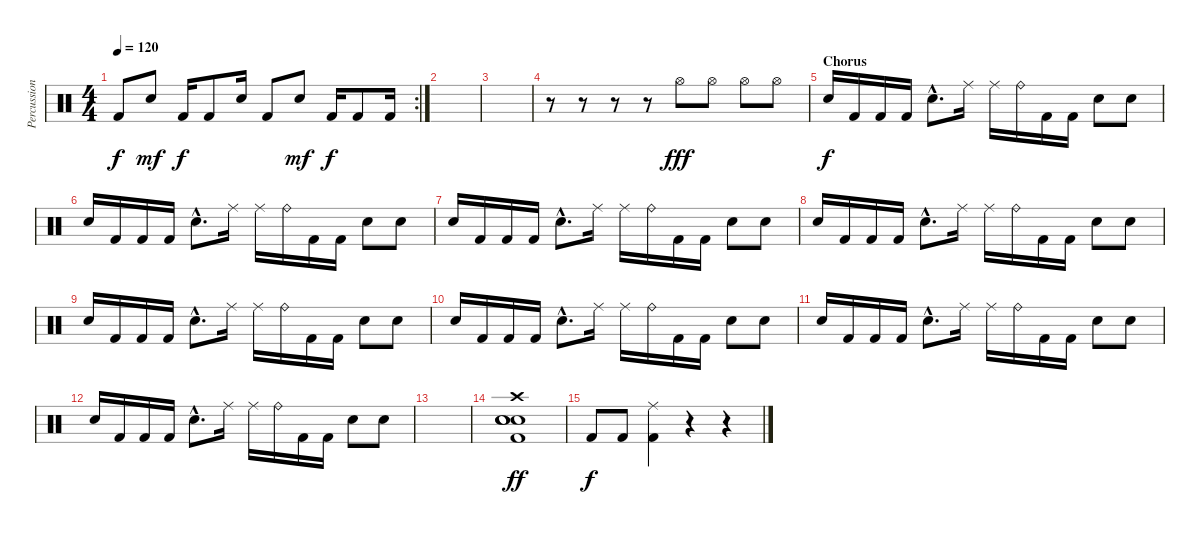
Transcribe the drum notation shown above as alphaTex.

\track ("Percussions" "Percussion") {instrument percussion}
\staff {score}
\articulation defaults
\rc 2
\ts (4 4)
\tempo 120
\clef neutral
\ks c "Kick (hit) 2".8{dy f volume 14} "Snare (hit) 2".8{dy mf} "Kick (hit) 2".16{dy f} "Kick (hit) 2".8 "Electric Snare (hit)".16 "Kick (hit) 2".8 "Snare (hit) 2".8{dy mf} "Kick (hit) 2".16{dy f} "Kick (hit) 2".8 "Kick (hit) 2".16
|
|
|
r.8 r.8 r.8 r.8 "Hi-Hat (open)".8{dy fff} "Hi-Hat (open)".8 "Hi-Hat (open)".8 "Hi-Hat (open)".8 |
\section ("" "Chorus")
"Snare (hit) 2".16{dy f} "Kick (hit) 2".16 "Kick (hit) 2".16 "Kick (hit) 2".16 "Snare (hit) 2"{hac}.8{d} "Ride (middle)".16 "Ride (middle)".16 "Ride (bell)".16 "Kick (hit) 2".16 "Kick (hit) 2".16 "Snare (hit) 2".8 "Snare (hit) 2".8 |
"Snare (hit) 2".16 "Kick (hit) 2".16 "Kick (hit) 2".16 "Kick (hit) 2".16 "Snare (hit) 2"{hac}.8{d} "Ride (middle)".16 "Ride (middle)".16 "Ride (bell)".16 "Kick (hit) 2".16 "Kick (hit) 2".16 "Snare (hit) 2".8 "Snare (hit) 2".8 |
"Snare (hit) 2".16 "Kick (hit) 2".16 "Kick (hit) 2".16 "Kick (hit) 2".16 "Snare (hit) 2"{hac}.8{d} "Ride (middle)".16 "Ride (middle)".16 "Ride (bell)".16 "Kick (hit) 2".16 "Kick (hit) 2".16 "Snare (hit) 2".8 "Snare (hit) 2".8 |
"Snare (hit) 2".16 "Kick (hit) 2".16 "Kick (hit) 2".16 "Kick (hit) 2".16 "Snare (hit) 2"{hac}.8{d} "Ride (middle)".16 "Ride (middle)".16 "Ride (bell)".16 "Kick (hit) 2".16 "Kick (hit) 2".16 "Snare (hit) 2".8 "Snare (hit) 2".8 |
"Snare (hit) 2".16 "Kick (hit) 2".16 "Kick (hit) 2".16 "Kick (hit) 2".16 "Snare (hit) 2"{hac}.8{d} "Ride (middle)".16 "Ride (middle)".16 "Ride (bell)".16 "Kick (hit) 2".16 "Kick (hit) 2".16 "Snare (hit) 2".8 "Snare (hit) 2".8 |
"Snare (hit) 2".16 "Kick (hit) 2".16 "Kick (hit) 2".16 "Kick (hit) 2".16 "Snare (hit) 2"{hac}.8{d} "Ride (middle)".16 "Ride (middle)".16 "Ride (bell)".16 "Kick (hit) 2".16 "Kick (hit) 2".16 "Snare (hit) 2".8 "Snare (hit) 2".8 |
"Snare (hit) 2".16 "Kick (hit) 2".16 "Kick (hit) 2".16 "Kick (hit) 2".16 "Snare (hit) 2"{hac}.8{d} "Ride (middle)".16 "Ride (middle)".16 "Ride (bell)".16 "Kick (hit) 2".16 "Kick (hit) 2".16 "Snare (hit) 2".8 "Snare (hit) 2".8 |
"Snare (hit) 2".16 "Kick (hit) 2".16 "Kick (hit) 2".16 "Kick (hit) 2".16 "Snare (hit) 2"{hac}.8{d} "Ride (middle)".16 "Ride (middle)".16 "Ride (bell)".16 "Kick (hit) 2".16 "Kick (hit) 2".16 "Snare (hit) 2".8 "Snare (hit) 2".8 |
|
("Crash high (hit)" "Electric Snare (hit)" "Electric Snare (hit)" "Electric Snare (hit)" "Kick (hit) 2").1{bd 240 dy ff} |
"Kick (hit) 2".8{dy f} "Kick (hit) 2".8 ("Ride (middle)" "Kick (hit) 2").4 r.4 r.4
